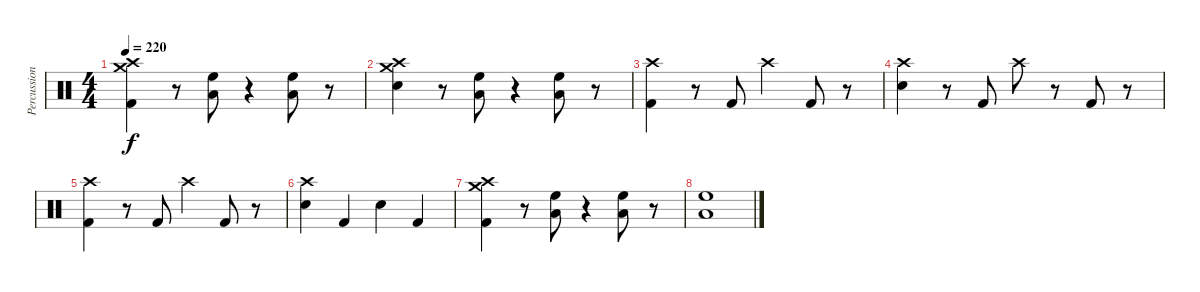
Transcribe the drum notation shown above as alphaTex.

\track ("Percussion" "Percussion") {instrument percussion}
\staff {score}
\articulation defaults
\ts (4 4)
\tempo 220
\clef neutral
\ks c
("Crash medium (hit)" "Crash high (hit)" "Kick (hit) 2").4{dy f} r.8 ("High Floor Tom (hit)" "Low Floor Tom (hit)").8 r.4 ("High Floor Tom (hit)" "Low Floor Tom (hit)").8 r.8 |
("Crash medium (hit)" "Crash high (hit)" "Snare (hit) 2").4 r.8 ("High Floor Tom (hit)" "Low Floor Tom (hit)").8 r.4 ("High Floor Tom (hit)" "Low Floor Tom (hit)").8 r.8 |
("Crash high (hit)" "Kick (hit) 2").4 r.8 "Kick (hit) 2".8 "Crash high (hit)".4 "Kick (hit) 2".8 r.8 |
("Crash high (hit)" "Snare (hit) 2").4 r.8 "Kick (hit) 2".8 "Crash high (hit)".8 r.8 "Kick (hit) 2".8 r.8 |
("Crash high (hit)" "Kick (hit) 2").4 r.8 "Kick (hit) 2".8 "Crash high (hit)".4 "Kick (hit) 2".8 r.8 |
("Crash high (hit)" "Snare (hit) 2").4 "Kick (hit) 2".4 "Snare (hit) 2".4 "Kick (hit) 2".4 |
("Crash medium (hit)" "Crash high (hit)" "Kick (hit) 2").4 r.8 ("High Floor Tom (hit)" "Low Floor Tom (hit)").8 r.4 ("High Floor Tom (hit)" "Low Floor Tom (hit)").8 r.8 |
("High Floor Tom (hit)" "Low Floor Tom (hit)").1
